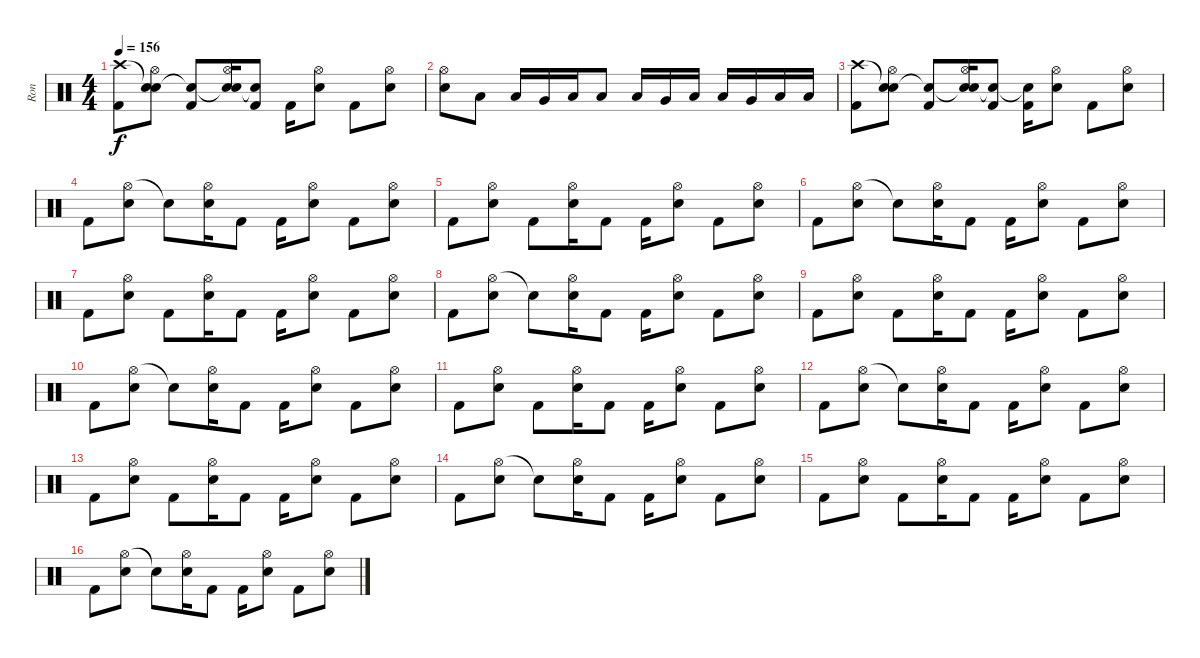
\track ("Ron" "Ron") {instrument percussion}
\staff {score}
\articulation defaults
\ts (4 4)
\tempo 156
\clef neutral
\ks c
("Crash high (hit)" "Kick (hit) 2").8{dy f} ("Snare (hit)"{t} "Hi-Hat (open)" "Electric Snare (hit)").8 ("Snare (hit)"{t} "Kick (hit) 2").8 ("Snare (hit)"{t} "Hi-Hat (open)" "Electric Snare (hit)").16 ("Snare (hit)"{t} "Kick (hit) 2").8 "Kick (hit) 2".16 ("Hi-Hat (open)" "Electric Snare (hit)").8 "Kick (hit) 2".8 ("Hi-Hat (open)" "Electric Snare (hit)").8 |
("Hi-Hat (open)" "Electric Snare (hit)").8 "Low Tom (hit)".8 "Low Tom (hit)".16 "Very Low Tom (hit)".16 "Low Floor Tom (hit)".16 "Low Floor Tom (hit)".8 "Low Tom (hit)".16 "Very Low Tom (hit)".16 "Low Floor Tom (hit)".16 "Low Tom (hit)".16 "Very Low Tom (hit)".16 "Low Floor Tom (hit)".16 "Low Floor Tom (hit)".16 |
("Crash high (hit)" "Kick (hit) 2").8 ("Snare (hit)"{t} "Hi-Hat (open)" "Electric Snare (hit)").8 ("Snare (hit)"{t} "Kick (hit) 2").8 ("Snare (hit)"{t} "Hi-Hat (open)" "Electric Snare (hit)").16 ("Snare (hit)"{t} "Kick (hit) 2").8 ("Snare (hit)"{t} "Kick (hit) 2").16 ("Hi-Hat (open)" "Electric Snare (hit)").8 "Kick (hit) 2".8 ("Hi-Hat (open)" "Electric Snare (hit)").8 |
"Kick (hit) 2".8 ("Hi-Hat (open)" "Electric Snare (hit)").8 "Snare (hit)"{t}.8 ("Hi-Hat (open)" "Electric Snare (hit)").16 "Kick (hit) 2".8 "Kick (hit) 2".16 ("Hi-Hat (open)" "Electric Snare (hit)").8 "Kick (hit) 2".8 ("Hi-Hat (open)" "Electric Snare (hit)").8 |
"Kick (hit) 2".8 ("Hi-Hat (open)" "Electric Snare (hit)").8 "Kick (hit) 2".8 ("Hi-Hat (open)" "Electric Snare (hit)").16 "Kick (hit) 2".8 "Kick (hit) 2".16 ("Hi-Hat (open)" "Electric Snare (hit)").8 "Kick (hit) 2".8 ("Hi-Hat (open)" "Electric Snare (hit)").8 |
"Kick (hit) 2".8 ("Hi-Hat (open)" "Electric Snare (hit)").8 "Snare (hit)"{t}.8 ("Hi-Hat (open)" "Electric Snare (hit)").16 "Kick (hit) 2".8 "Kick (hit) 2".16 ("Hi-Hat (open)" "Electric Snare (hit)").8 "Kick (hit) 2".8 ("Hi-Hat (open)" "Electric Snare (hit)").8 |
"Kick (hit) 2".8 ("Hi-Hat (open)" "Electric Snare (hit)").8 "Kick (hit) 2".8 ("Hi-Hat (open)" "Electric Snare (hit)").16 "Kick (hit) 2".8 "Kick (hit) 2".16 ("Hi-Hat (open)" "Electric Snare (hit)").8 "Kick (hit) 2".8 ("Hi-Hat (open)" "Electric Snare (hit)").8 |
"Kick (hit) 2".8 ("Hi-Hat (open)" "Electric Snare (hit)").8 "Snare (hit)"{t}.8 ("Hi-Hat (open)" "Electric Snare (hit)").16 "Kick (hit) 2".8 "Kick (hit) 2".16 ("Hi-Hat (open)" "Electric Snare (hit)").8 "Kick (hit) 2".8 ("Hi-Hat (open)" "Electric Snare (hit)").8 |
"Kick (hit) 2".8 ("Hi-Hat (open)" "Electric Snare (hit)").8 "Kick (hit) 2".8 ("Hi-Hat (open)" "Electric Snare (hit)").16 "Kick (hit) 2".8 "Kick (hit) 2".16 ("Hi-Hat (open)" "Electric Snare (hit)").8 "Kick (hit) 2".8 ("Hi-Hat (open)" "Electric Snare (hit)").8 |
"Kick (hit) 2".8 ("Hi-Hat (open)" "Electric Snare (hit)").8 "Snare (hit)"{t}.8 ("Hi-Hat (open)" "Electric Snare (hit)").16 "Kick (hit) 2".8 "Kick (hit) 2".16 ("Hi-Hat (open)" "Electric Snare (hit)").8 "Kick (hit) 2".8 ("Hi-Hat (open)" "Electric Snare (hit)").8 |
"Kick (hit) 2".8 ("Hi-Hat (open)" "Electric Snare (hit)").8 "Kick (hit) 2".8 ("Hi-Hat (open)" "Electric Snare (hit)").16 "Kick (hit) 2".8 "Kick (hit) 2".16 ("Hi-Hat (open)" "Electric Snare (hit)").8 "Kick (hit) 2".8 ("Hi-Hat (open)" "Electric Snare (hit)").8 |
"Kick (hit) 2".8 ("Hi-Hat (open)" "Electric Snare (hit)").8 "Snare (hit)"{t}.8 ("Hi-Hat (open)" "Electric Snare (hit)").16 "Kick (hit) 2".8 "Kick (hit) 2".16 ("Hi-Hat (open)" "Electric Snare (hit)").8 "Kick (hit) 2".8 ("Hi-Hat (open)" "Electric Snare (hit)").8 |
"Kick (hit) 2".8 ("Hi-Hat (open)" "Electric Snare (hit)").8 "Kick (hit) 2".8 ("Hi-Hat (open)" "Electric Snare (hit)").16 "Kick (hit) 2".8 "Kick (hit) 2".16 ("Hi-Hat (open)" "Electric Snare (hit)").8 "Kick (hit) 2".8 ("Hi-Hat (open)" "Electric Snare (hit)").8 |
"Kick (hit) 2".8 ("Hi-Hat (open)" "Electric Snare (hit)").8 "Snare (hit)"{t}.8 ("Hi-Hat (open)" "Electric Snare (hit)").16 "Kick (hit) 2".8 "Kick (hit) 2".16 ("Hi-Hat (open)" "Electric Snare (hit)").8 "Kick (hit) 2".8 ("Hi-Hat (open)" "Electric Snare (hit)").8 |
"Kick (hit) 2".8 ("Hi-Hat (open)" "Electric Snare (hit)").8 "Kick (hit) 2".8 ("Hi-Hat (open)" "Electric Snare (hit)").16 "Kick (hit) 2".8 "Kick (hit) 2".16 ("Hi-Hat (open)" "Electric Snare (hit)").8 "Kick (hit) 2".8 ("Hi-Hat (open)" "Electric Snare (hit)").8 |
"Kick (hit) 2".8 ("Hi-Hat (open)" "Electric Snare (hit)").8 "Snare (hit)"{t}.8 ("Hi-Hat (open)" "Electric Snare (hit)").16 "Kick (hit) 2".8 "Kick (hit) 2".16 ("Hi-Hat (open)" "Electric Snare (hit)").8 "Kick (hit) 2".8 ("Hi-Hat (open)" "Electric Snare (hit)").8
